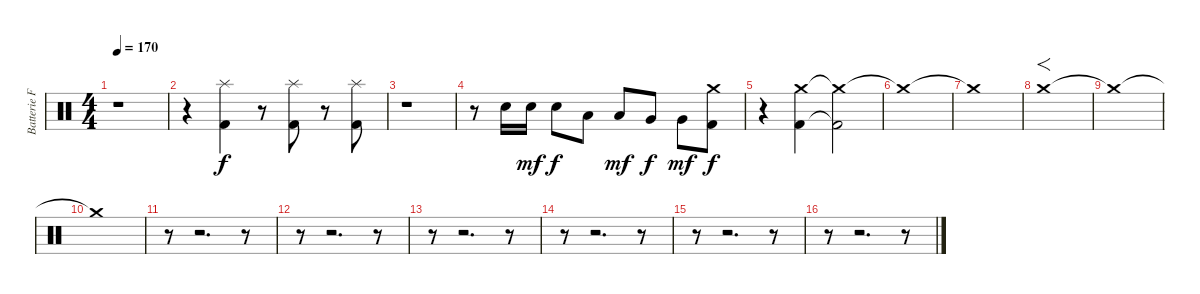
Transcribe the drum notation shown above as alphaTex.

\track ("Batterie Franck" "Batterie F") {instrument percussion}
\staff {score}
\articulation defaults
\ts (4 4)
\tempo 170
\clef neutral
\ks c
r.1{dy f} |
r.4 ("Splash (hit)" "Kick (hit) 2").4 r.8 ("Splash (hit)" "Kick (hit) 2").8 r.8 ("Splash (hit)" "Kick (hit) 2").8 |
r.1 |
r.8 "Snare (hit) 2".16 "Snare (hit) 2".16{dy mf} "Snare (hit) 2".8{dy f} "Low Tom (hit)".8 "Low Tom (hit)".8{dy mf} "Very Low Tom (hit)".8{dy f} "Very Low Tom (hit)".8{dy mf} ("Crash medium (hit)" "Kick (hit) 2").8{dy f} |
r.4 ("Crash medium (hit)" "Kick (hit) 2").4 ("Crash medium (hit)"{t} "Kick (hit) 2"{t}).2 |
"Crash medium (hit)"{t}.1 |
"Crash medium (hit)"{t}.1 |
"Crash medium (hit)".1{f} |
"Crash medium (hit)"{t}.1 |
"Crash medium (hit)"{t}.1 |
r.8 r.2{d} r.8 |
r.8 r.2{d} r.8 |
r.8 r.2{d} r.8 |
r.8 r.2{d} r.8 |
r.8 r.2{d} r.8 |
r.8 r.2{d} r.8
